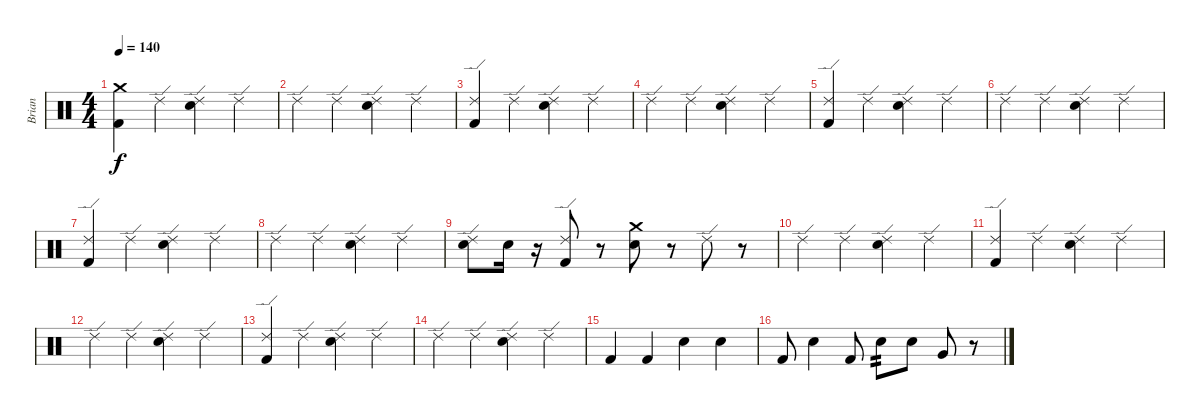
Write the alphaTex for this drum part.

\track ("Brian" "Brian") {instrument percussion}
\staff {score}
\articulation defaults
\ts (4 4)
\tempo 140
\clef neutral
\ks c
("Crash medium (hit)" "Kick (hit) 2").4{dy f} "Ride (edge) 2".4 ("Ride (edge) 2" "Electric Snare (hit)").4 "Ride (edge) 2".4 |
"Ride (edge) 2".4 "Ride (edge) 2".4 ("Ride (edge) 2" "Electric Snare (hit)").4 "Ride (edge) 2".4 |
("Ride (edge) 2" "Kick (hit) 2").4 "Ride (edge) 2".4 ("Ride (edge) 2" "Electric Snare (hit)").4 "Ride (edge) 2".4 |
"Ride (edge) 2".4 "Ride (edge) 2".4 ("Ride (edge) 2" "Electric Snare (hit)").4 "Ride (edge) 2".4 |
("Ride (edge) 2" "Kick (hit) 2").4 "Ride (edge) 2".4 ("Ride (edge) 2" "Electric Snare (hit)").4 "Ride (edge) 2".4 |
"Ride (edge) 2".4 "Ride (edge) 2".4 ("Ride (edge) 2" "Electric Snare (hit)").4 "Ride (edge) 2".4 |
("Ride (edge) 2" "Kick (hit) 2").4 "Ride (edge) 2".4 ("Ride (edge) 2" "Electric Snare (hit)").4 "Ride (edge) 2".4 |
"Ride (edge) 2".4 "Ride (edge) 2".4 ("Ride (edge) 2" "Electric Snare (hit)").4 "Ride (edge) 2".4 |
("Ride (edge) 2" "Electric Snare (hit)").8 "Electric Snare (hit)".16 r.16 ("Ride (edge) 2" "Kick (hit) 2").8 r.8 ("Crash medium (hit)" "Electric Snare (hit)").8 r.8 "Ride (edge) 2".8 r.8 |
"Ride (edge) 2".4 "Ride (edge) 2".4 ("Ride (edge) 2" "Electric Snare (hit)").4 "Ride (edge) 2".4 |
("Ride (edge) 2" "Kick (hit) 2").4 "Ride (edge) 2".4 ("Ride (edge) 2" "Electric Snare (hit)").4 "Ride (edge) 2".4 |
"Ride (edge) 2".4 "Ride (edge) 2".4 ("Ride (edge) 2" "Electric Snare (hit)").4 "Ride (edge) 2".4 |
("Ride (edge) 2" "Kick (hit) 2").4 "Ride (edge) 2".4 ("Ride (edge) 2" "Electric Snare (hit)").4 "Ride (edge) 2".4 |
"Ride (edge) 2".4 "Ride (edge) 2".4 ("Ride (edge) 2" "Electric Snare (hit)").4 "Ride (edge) 2".4 |
"Kick (hit) 2".4 "Kick (hit) 2".4 "Electric Snare (hit)".4 "Electric Snare (hit)".4 |
"Kick (hit) 2".8 "Electric Snare (hit)".4 "Kick (hit) 2".8 "Electric Snare (hit)".8{tp 2} "Electric Snare (hit)".8 "Very Low Tom (hit)".8 r.8
